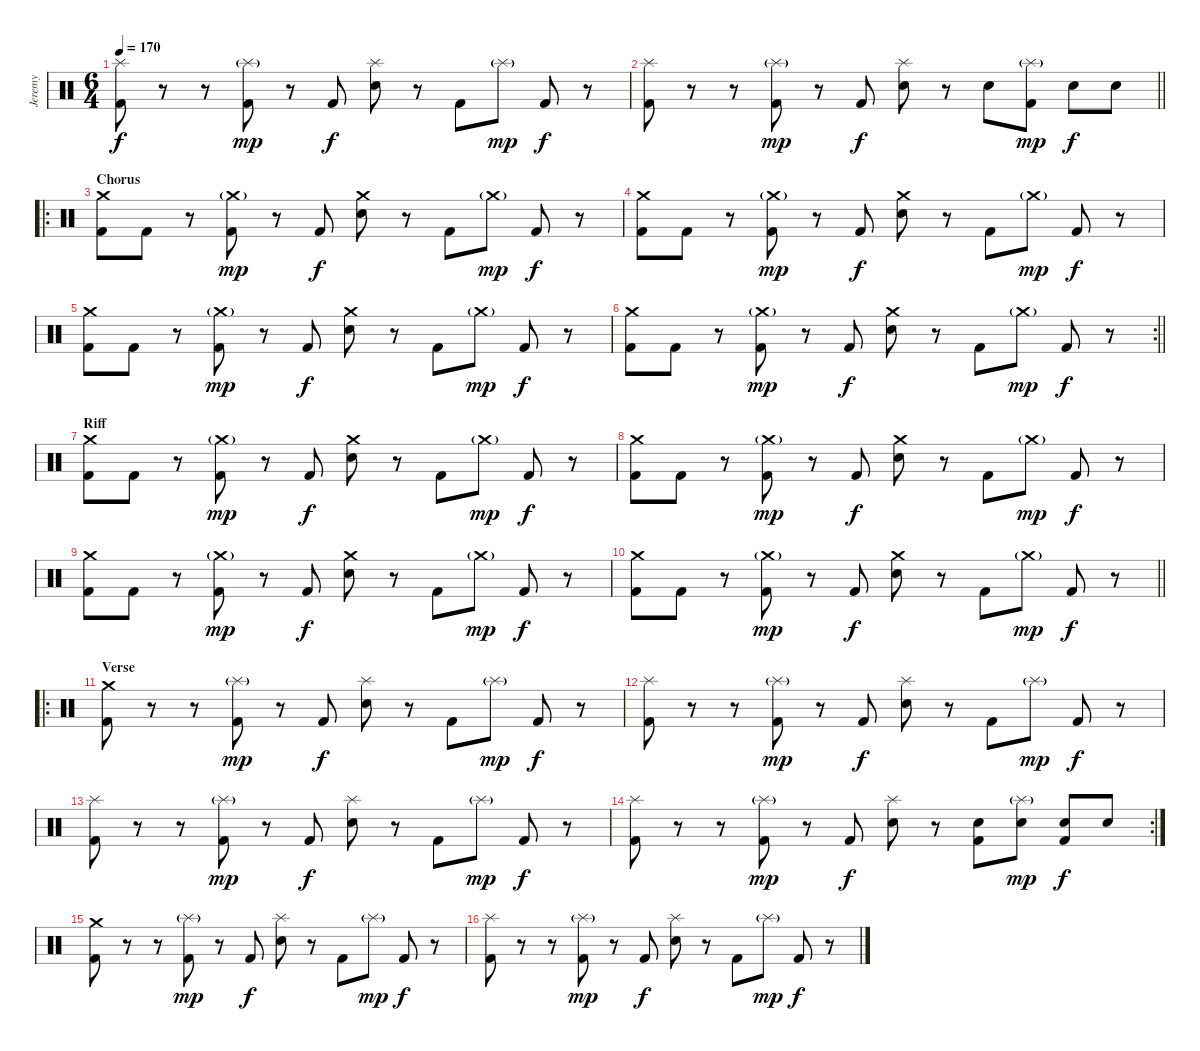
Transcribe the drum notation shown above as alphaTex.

\track ("Jeremy" "Jeremy") {instrument percussion}
\staff {score}
\articulation defaults
\ts (6 4)
\tempo 170
\clef neutral
\ks c
("Splash (hit)" "Kick (hit) 2").8{dy f} r.8 r.8 ("Splash (hit)"{g} "Kick (hit) 2").8{dy mp} r.8 "Kick (hit) 2".8{dy f} ("Splash (hit)" "Electric Snare (hit)").8 r.8 "Kick (hit) 2".8 "Splash (hit)"{g}.8{dy mp} "Kick (hit) 2".8{dy f} r.8 |
\barLineRight lightlight
("Splash (hit)" "Kick (hit) 2").8 r.8 r.8 ("Splash (hit)"{g} "Kick (hit) 2").8{dy mp} r.8 "Kick (hit) 2".8{dy f} ("Splash (hit)" "Snare (hit) 2").8 r.8 "Snare (hit) 2".8 ("Splash (hit)"{g} "Kick (hit) 2").8{dy mp} "Snare (hit) 2".8{dy f} "Snare (hit) 2".8 |
\ro
\section ("" "Chorus")
("Crash medium (hit)" "Kick (hit) 2").8 "Kick (hit) 2".8 r.8 ("Crash medium (hit)"{g} "Kick (hit) 2").8{dy mp} r.8 "Kick (hit) 2".8{dy f} ("Crash medium (hit)" "Electric Snare (hit)").8 r.8 "Kick (hit) 2".8 "Crash medium (hit)"{g}.8{dy mp} "Kick (hit) 2".8{dy f} r.8 |
("Crash medium (hit)" "Kick (hit) 2").8 "Kick (hit) 2".8 r.8 ("Crash medium (hit)"{g} "Kick (hit) 2").8{dy mp} r.8 "Kick (hit) 2".8{dy f} ("Crash medium (hit)" "Electric Snare (hit)").8 r.8 "Kick (hit) 2".8 "Crash medium (hit)"{g}.8{dy mp} "Kick (hit) 2".8{dy f} r.8 |
("Crash medium (hit)" "Kick (hit) 2").8 "Kick (hit) 2".8 r.8 ("Crash medium (hit)"{g} "Kick (hit) 2").8{dy mp} r.8 "Kick (hit) 2".8{dy f} ("Crash medium (hit)" "Electric Snare (hit)").8 r.8 "Kick (hit) 2".8 "Crash medium (hit)"{g}.8{dy mp} "Kick (hit) 2".8{dy f} r.8 |
\rc 2
\barLineRight lightlight
("Crash medium (hit)" "Kick (hit) 2").8 "Kick (hit) 2".8 r.8 ("Crash medium (hit)"{g} "Kick (hit) 2").8{dy mp} r.8 "Kick (hit) 2".8{dy f} ("Crash medium (hit)" "Electric Snare (hit)").8 r.8 "Kick (hit) 2".8 "Crash medium (hit)"{g}.8{dy mp} "Kick (hit) 2".8{dy f} r.8 |
\section ("" "Riff")
("Crash medium (hit)" "Kick (hit) 2").8 "Kick (hit) 2".8 r.8 ("Crash medium (hit)"{g} "Kick (hit) 2").8{dy mp} r.8 "Kick (hit) 2".8{dy f} ("Crash medium (hit)" "Electric Snare (hit)").8 r.8 "Kick (hit) 2".8 "Crash medium (hit)"{g}.8{dy mp} "Kick (hit) 2".8{dy f} r.8 |
("Crash medium (hit)" "Kick (hit) 2").8 "Kick (hit) 2".8 r.8 ("Crash medium (hit)"{g} "Kick (hit) 2").8{dy mp} r.8 "Kick (hit) 2".8{dy f} ("Crash medium (hit)" "Electric Snare (hit)").8 r.8 "Kick (hit) 2".8 "Crash medium (hit)"{g}.8{dy mp} "Kick (hit) 2".8{dy f} r.8 |
("Crash medium (hit)" "Kick (hit) 2").8 "Kick (hit) 2".8 r.8 ("Crash medium (hit)"{g} "Kick (hit) 2").8{dy mp} r.8 "Kick (hit) 2".8{dy f} ("Crash medium (hit)" "Electric Snare (hit)").8 r.8 "Kick (hit) 2".8 "Crash medium (hit)"{g}.8{dy mp} "Kick (hit) 2".8{dy f} r.8 |
\barLineRight lightlight
("Crash medium (hit)" "Kick (hit) 2").8 "Kick (hit) 2".8 r.8 ("Crash medium (hit)"{g} "Kick (hit) 2").8{dy mp} r.8 "Kick (hit) 2".8{dy f} ("Crash medium (hit)" "Electric Snare (hit)").8 r.8 "Kick (hit) 2".8 "Crash medium (hit)"{g}.8{dy mp} "Kick (hit) 2".8{dy f} r.8 |
\ro
\section ("" "Verse")
("Crash medium (hit)" "Kick (hit) 2").8 r.8 r.8 ("Splash (hit)"{g} "Kick (hit) 2").8{dy mp} r.8 "Kick (hit) 2".8{dy f} ("Splash (hit)" "Electric Snare (hit)").8 r.8 "Kick (hit) 2".8 "Splash (hit)"{g}.8{dy mp} "Kick (hit) 2".8{dy f} r.8 |
("Splash (hit)" "Kick (hit) 2").8 r.8 r.8 ("Splash (hit)"{g} "Kick (hit) 2").8{dy mp} r.8 "Kick (hit) 2".8{dy f} ("Splash (hit)" "Electric Snare (hit)").8 r.8 "Kick (hit) 2".8 "Splash (hit)"{g}.8{dy mp} "Kick (hit) 2".8{dy f} r.8 |
("Splash (hit)" "Kick (hit) 2").8 r.8 r.8 ("Splash (hit)"{g} "Kick (hit) 2").8{dy mp} r.8 "Kick (hit) 2".8{dy f} ("Splash (hit)" "Electric Snare (hit)").8 r.8 "Kick (hit) 2".8 "Splash (hit)"{g}.8{dy mp} "Kick (hit) 2".8{dy f} r.8 |
\rc 2
("Splash (hit)" "Kick (hit) 2").8 r.8 r.8 ("Splash (hit)"{g} "Kick (hit) 2").8{dy mp} r.8 "Kick (hit) 2".8{dy f} ("Splash (hit)" "Electric Snare (hit)").8 r.8 ("Electric Snare (hit)" "Kick (hit) 2").8 ("Splash (hit)"{g} "Electric Snare (hit)").8{dy mp} ("Electric Snare (hit)" "Kick (hit) 2").8{dy f} "Electric Snare (hit)".8 |
("Crash medium (hit)" "Kick (hit) 2").8 r.8 r.8 ("Splash (hit)"{g} "Kick (hit) 2").8{dy mp} r.8 "Kick (hit) 2".8{dy f} ("Splash (hit)" "Electric Snare (hit)").8 r.8 "Kick (hit) 2".8 "Splash (hit)"{g}.8{dy mp} "Kick (hit) 2".8{dy f} r.8 |
("Splash (hit)" "Kick (hit) 2").8 r.8 r.8 ("Splash (hit)"{g} "Kick (hit) 2").8{dy mp} r.8 "Kick (hit) 2".8{dy f} ("Splash (hit)" "Electric Snare (hit)").8 r.8 "Kick (hit) 2".8 "Splash (hit)"{g}.8{dy mp} "Kick (hit) 2".8{dy f} r.8
